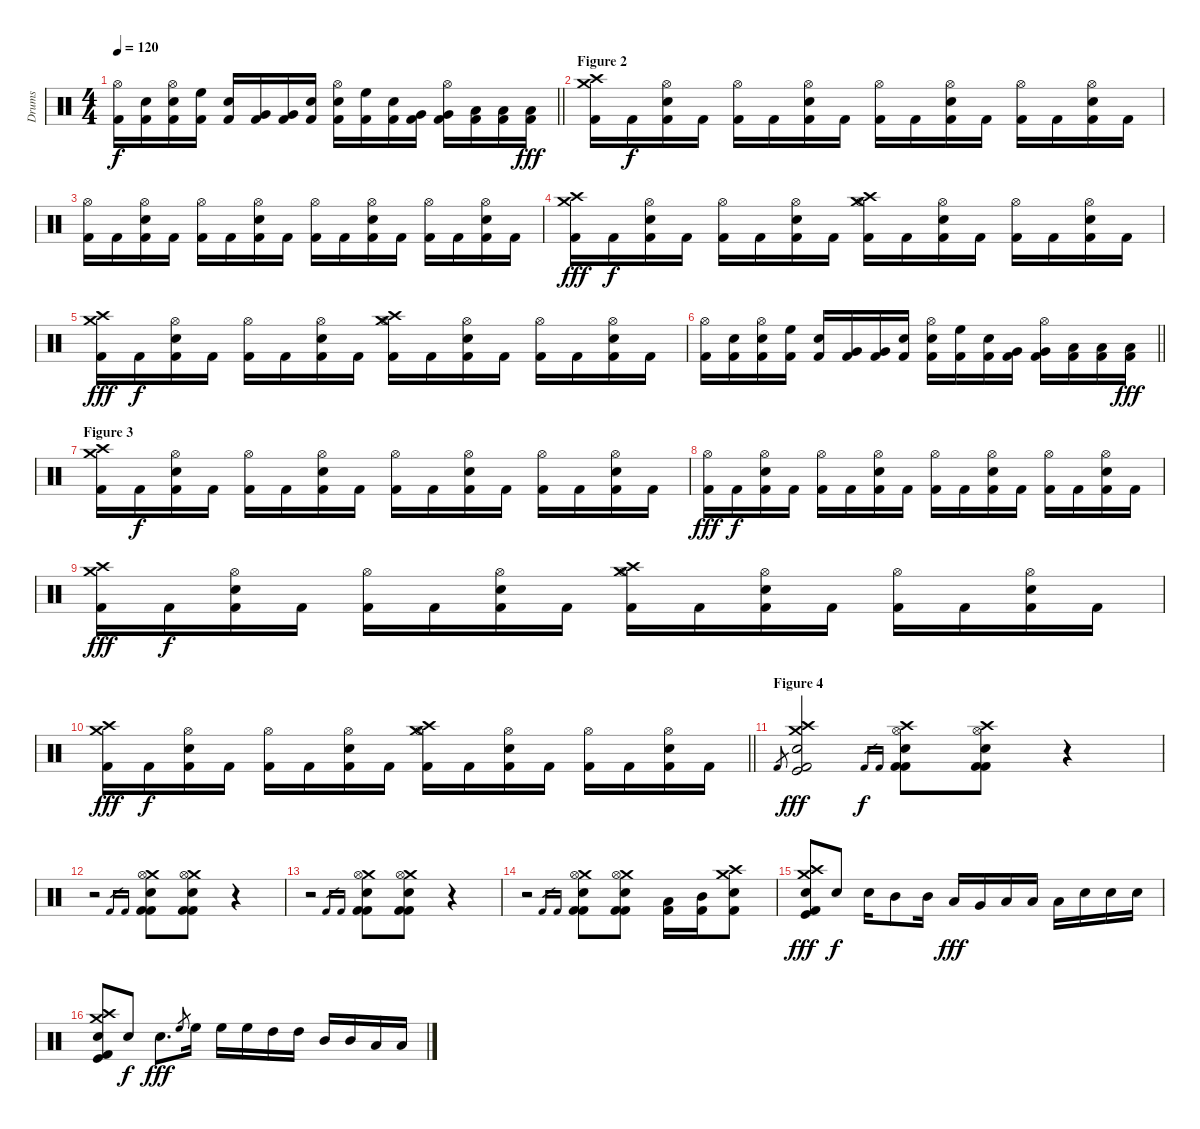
\track ("Drums" "Drums") {instrument percussion}
\staff {score}
\articulation defaults
\ts (4 4)
\tempo 120
\clef neutral
\barLineRight lightlight
\ks c
("Hi-Hat (open)" "Kick (hit) 2").16{dy f} ("Electric Snare (hit)" "Kick (hit) 2").16 ("Hi-Hat (open)" "Electric Snare (hit)" "Kick (hit) 2").16 ("High Floor Tom (hit)" "Kick (hit) 2").16 ("Electric Snare (hit)" "Kick (hit) 2").16 ("Very Low Tom (hit)" "Kick (hit) 2").16 ("Very Low Tom (hit)" "Kick (hit) 2").16 ("Electric Snare (hit)" "Kick (hit) 2").16 ("Hi-Hat (open)" "Electric Snare (hit)" "Kick (hit) 2").16 ("High Floor Tom (hit)" "Kick (hit) 2").16 ("Electric Snare (hit)" "Kick (hit) 2").16 ("Very Low Tom (hit)" "Kick (hit) 2").16 ("Hi-Hat (open)" "Very Low Tom (hit)" "Kick (hit) 2").16 ("Low Tom (hit)" "Kick (hit) 2").16 ("Low Tom (hit)" "Kick (hit) 2").16 ("Low Floor Tom (hit)" "Kick (hit) 2").16{dy fff} |
\section ("" "Figure 2")
("Crash high (hit)" "Crash medium (hit)" "Kick (hit) 2").16 "Kick (hit) 2".16{dy f} ("Hi-Hat (open)" "Electric Snare (hit)" "Kick (hit) 2").16 "Kick (hit) 2".16 ("Hi-Hat (open)" "Kick (hit) 2").16 "Kick (hit) 2".16 ("Hi-Hat (open)" "Electric Snare (hit)" "Kick (hit) 2").16 "Kick (hit) 2".16 ("Hi-Hat (open)" "Kick (hit) 2").16 "Kick (hit) 2".16 ("Hi-Hat (open)" "Electric Snare (hit)" "Kick (hit) 2").16 "Kick (hit) 2".16 ("Hi-Hat (open)" "Kick (hit) 2").16 "Kick (hit) 2".16 ("Hi-Hat (open)" "Electric Snare (hit)" "Kick (hit) 2").16 "Kick (hit) 2".16 |
("Hi-Hat (open)" "Kick (hit) 2").16 "Kick (hit) 2".16 ("Hi-Hat (open)" "Electric Snare (hit)" "Kick (hit) 2").16 "Kick (hit) 2".16 ("Hi-Hat (open)" "Kick (hit) 2").16 "Kick (hit) 2".16 ("Hi-Hat (open)" "Electric Snare (hit)" "Kick (hit) 2").16 "Kick (hit) 2".16 ("Hi-Hat (open)" "Kick (hit) 2").16 "Kick (hit) 2".16 ("Hi-Hat (open)" "Electric Snare (hit)" "Kick (hit) 2").16 "Kick (hit) 2".16 ("Hi-Hat (open)" "Kick (hit) 2").16 "Kick (hit) 2".16 ("Hi-Hat (open)" "Electric Snare (hit)" "Kick (hit) 2").16 "Kick (hit) 2".16 |
("Crash high (hit)" "Crash medium (hit)" "Kick (hit) 2").16{dy fff} "Kick (hit) 2".16{dy f} ("Hi-Hat (open)" "Electric Snare (hit)" "Kick (hit) 2").16 "Kick (hit) 2".16 ("Hi-Hat (open)" "Kick (hit) 2").16 "Kick (hit) 2".16 ("Hi-Hat (open)" "Electric Snare (hit)" "Kick (hit) 2").16 "Kick (hit) 2".16 ("Crash medium (hit)" "Hi-Hat (open)" "Crash high (hit)" "Kick (hit) 2").16 "Kick (hit) 2".16 ("Hi-Hat (open)" "Electric Snare (hit)" "Kick (hit) 2").16 "Kick (hit) 2".16 ("Hi-Hat (open)" "Kick (hit) 2").16 "Kick (hit) 2".16 ("Hi-Hat (open)" "Electric Snare (hit)" "Kick (hit) 2").16 "Kick (hit) 2".16 |
("Crash high (hit)" "Crash medium (hit)" "Kick (hit) 2").16{dy fff} "Kick (hit) 2".16{dy f} ("Hi-Hat (open)" "Electric Snare (hit)" "Kick (hit) 2").16 "Kick (hit) 2".16 ("Hi-Hat (open)" "Kick (hit) 2").16 "Kick (hit) 2".16 ("Hi-Hat (open)" "Electric Snare (hit)" "Kick (hit) 2").16 "Kick (hit) 2".16 ("Crash high (hit)" "Hi-Hat (open)" "Crash medium (hit)" "Kick (hit) 2").16 "Kick (hit) 2".16 ("Hi-Hat (open)" "Electric Snare (hit)" "Kick (hit) 2").16 "Kick (hit) 2".16 ("Hi-Hat (open)" "Kick (hit) 2").16 "Kick (hit) 2".16 ("Hi-Hat (open)" "Electric Snare (hit)" "Kick (hit) 2").16 "Kick (hit) 2".16 |
\barLineRight lightlight
("Hi-Hat (open)" "Kick (hit) 2").16 ("Electric Snare (hit)" "Kick (hit) 2").16 ("Hi-Hat (open)" "Electric Snare (hit)" "Kick (hit) 2").16 ("High Floor Tom (hit)" "Kick (hit) 2").16 ("Electric Snare (hit)" "Kick (hit) 2").16 ("Very Low Tom (hit)" "Kick (hit) 2").16 ("Very Low Tom (hit)" "Kick (hit) 2").16 ("Electric Snare (hit)" "Kick (hit) 2").16 ("Hi-Hat (open)" "Electric Snare (hit)" "Kick (hit) 2").16 ("High Floor Tom (hit)" "Kick (hit) 2").16 ("Electric Snare (hit)" "Kick (hit) 2").16 ("Very Low Tom (hit)" "Kick (hit) 2").16 ("Hi-Hat (open)" "Very Low Tom (hit)" "Kick (hit) 2").16 ("Low Tom (hit)" "Kick (hit) 2").16 ("Low Tom (hit)" "Kick (hit) 2").16 ("Low Floor Tom (hit)" "Kick (hit) 2").16{dy fff} |
\section ("" "Figure 3")
("Crash high (hit)" "Crash medium (hit)" "Kick (hit) 2").16 "Kick (hit) 2".16{dy f} ("Hi-Hat (open)" "Electric Snare (hit)" "Kick (hit) 2").16 "Kick (hit) 2".16 ("Hi-Hat (open)" "Kick (hit) 2").16 "Kick (hit) 2".16 ("Hi-Hat (open)" "Electric Snare (hit)" "Kick (hit) 2").16 "Kick (hit) 2".16 ("Hi-Hat (open)" "Kick (hit) 2").16 "Kick (hit) 2".16 ("Hi-Hat (open)" "Electric Snare (hit)" "Kick (hit) 2").16 "Kick (hit) 2".16 ("Hi-Hat (open)" "Kick (hit) 2").16 "Kick (hit) 2".16 ("Hi-Hat (open)" "Electric Snare (hit)" "Kick (hit) 2").16 "Kick (hit) 2".16 |
("Hi-Hat (open)" "Kick (hit) 2").16{dy fff} "Kick (hit) 2".16{dy f} ("Hi-Hat (open)" "Electric Snare (hit)" "Kick (hit) 2").16 "Kick (hit) 2".16 ("Hi-Hat (open)" "Kick (hit) 2").16 "Kick (hit) 2".16 ("Hi-Hat (open)" "Electric Snare (hit)" "Kick (hit) 2").16 "Kick (hit) 2".16 ("Hi-Hat (open)" "Kick (hit) 2").16 "Kick (hit) 2".16 ("Hi-Hat (open)" "Electric Snare (hit)" "Kick (hit) 2").16 "Kick (hit) 2".16 ("Hi-Hat (open)" "Kick (hit) 2").16 "Kick (hit) 2".16 ("Hi-Hat (open)" "Electric Snare (hit)" "Kick (hit) 2").16 "Kick (hit) 2".16 |
("Crash high (hit)" "Crash medium (hit)" "Kick (hit) 2").16{dy fff} "Kick (hit) 2".16{dy f} ("Hi-Hat (open)" "Electric Snare (hit)" "Kick (hit) 2").16 "Kick (hit) 2".16 ("Hi-Hat (open)" "Kick (hit) 2").16 "Kick (hit) 2".16 ("Hi-Hat (open)" "Electric Snare (hit)" "Kick (hit) 2").16 "Kick (hit) 2".16 ("Crash medium (hit)" "Hi-Hat (open)" "Crash high (hit)" "Kick (hit) 2").16 "Kick (hit) 2".16 ("Hi-Hat (open)" "Electric Snare (hit)" "Kick (hit) 2").16 "Kick (hit) 2".16 ("Hi-Hat (open)" "Kick (hit) 2").16 "Kick (hit) 2".16 ("Hi-Hat (open)" "Electric Snare (hit)" "Kick (hit) 2").16 "Kick (hit) 2".16 |
\barLineRight lightlight
("Crash high (hit)" "Crash medium (hit)" "Kick (hit) 2").16{dy fff} "Kick (hit) 2".16{dy f} ("Hi-Hat (open)" "Electric Snare (hit)" "Kick (hit) 2").16 "Kick (hit) 2".16 ("Hi-Hat (open)" "Kick (hit) 2").16 "Kick (hit) 2".16 ("Hi-Hat (open)" "Electric Snare (hit)" "Kick (hit) 2").16 "Kick (hit) 2".16 ("Crash high (hit)" "Hi-Hat (open)" "Crash medium (hit)" "Kick (hit) 2").16 "Kick (hit) 2".16 ("Hi-Hat (open)" "Electric Snare (hit)" "Kick (hit) 2").16 "Kick (hit) 2".16 ("Hi-Hat (open)" "Kick (hit) 2").16 "Kick (hit) 2".16 ("Hi-Hat (open)" "Electric Snare (hit)" "Kick (hit) 2").16 "Kick (hit) 2".16 |
\section ("" "Figure 4")
"Kick (hit) 2".8{gr} ("Crash medium (hit)" "Crash high (hit)" "Electric Snare (hit)" "Kick (hit)" "Kick (hit) 2").2{dy fff} "Kick (hit) 2".16{gr dy f} "Kick (hit) 2".16{gr} ("Crash high (hit)" "Hi-Hat (open)" "Electric Snare (hit)" "Kick (hit) 2" "Kick (hit) 2").8 ("Crash high (hit)" "Hi-Hat (open)" "Electric Snare (hit)" "Kick (hit) 2" "Kick (hit) 2").8 r.4 |
r.2 "Kick (hit) 2".16{gr} "Kick (hit) 2".16{gr} ("Crash medium (hit)" "Hi-Hat (open)" "Electric Snare (hit)" "Kick (hit) 2" "Kick (hit) 2").8 ("Crash medium (hit)" "Hi-Hat (open)" "Electric Snare (hit)" "Kick (hit) 2" "Kick (hit) 2").8 r.4 |
r.2 "Kick (hit) 2".16{gr} "Kick (hit) 2".16{gr} ("Crash medium (hit)" "Hi-Hat (open)" "Electric Snare (hit)" "Kick (hit) 2" "Kick (hit) 2").8 ("Crash medium (hit)" "Hi-Hat (open)" "Electric Snare (hit)" "Kick (hit) 2" "Kick (hit) 2").8 r.4 |
r.2 "Kick (hit) 2".16{gr} "Kick (hit) 2".16{gr} ("Crash medium (hit)" "Hi-Hat (open)" "Electric Snare (hit)" "Kick (hit) 2" "Kick (hit) 2").8 ("Crash medium (hit)" "Hi-Hat (open)" "Electric Snare (hit)" "Kick (hit) 2" "Kick (hit) 2").8 ("Low Tom (hit)" "Kick (hit) 2").16 ("Mid Tom (hit)" "Kick (hit) 2").16 ("Crash high (hit)" "Electric Snare (hit)" "Crash medium (hit)" "Kick (hit) 2").8 |
("Crash medium (hit)" "Crash high (hit)" "Electric Snare (hit)" "Kick (hit)" "Kick (hit) 2").8{dy fff} "Electric Snare (hit)".8{dy f} "Electric Snare (hit)".16 "Mid Tom (hit)".8 "Mid Tom (hit)".16 "Low Tom (hit)".16{dy fff} "Very Low Tom (hit)".16 "Low Tom (hit)".16 "Low Floor Tom (hit)".16 "Low Floor Tom (hit)".16 "Electric Snare (hit)".16 "Electric Snare (hit)".16 "Electric Snare (hit)".16 |
("Crash medium (hit)" "Crash high (hit)" "Electric Snare (hit)" "Kick (hit)" "Kick (hit) 2").8 "Electric Snare (hit)".8{dy f} "Electric Snare (hit)".8{d dy fff} "High Floor Tom (hit)".8{gr} "High Floor Tom (hit)".16 "High Floor Tom (hit)".16 "High Floor Tom (hit)".16 "High Tom (hit)".16 "High Tom (hit)".16 "Mid Tom (hit)".16 "Mid Tom (hit)".16 "Low Tom (hit)".16 "Low Tom (hit)".16
